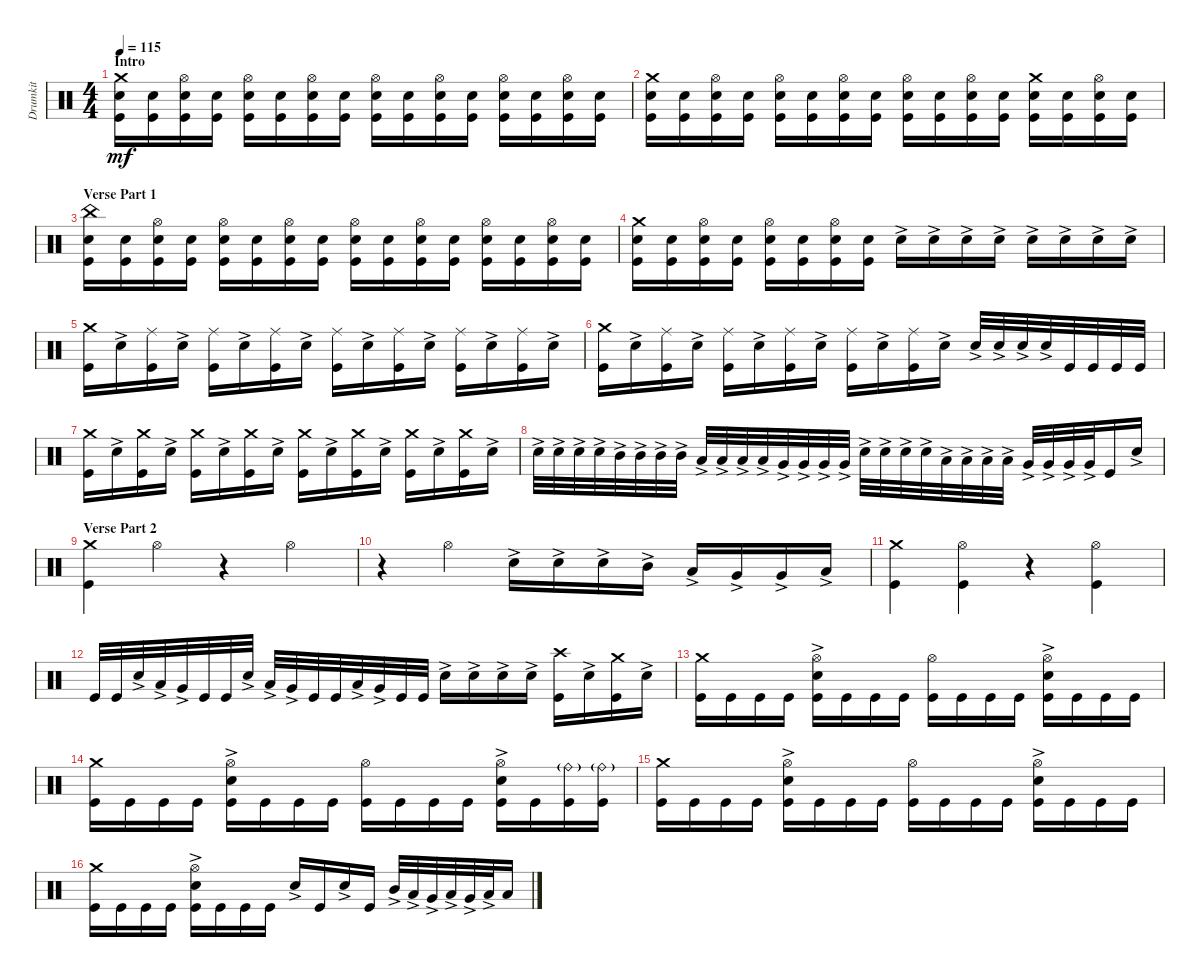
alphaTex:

\track ("Drumkit" "Drumkit") {instrument percussion}
\staff {score}
\articulation defaults
\ts (4 4)
\section ("" "Intro")
\tempo 115
\clef neutral
\ks c
("Kick (hit)" "Crash medium (hit)" "Snare (hit) 2").16{dy mf} ("Kick (hit)" "Snare (hit) 2").16 ("Kick (hit)" "Hi-Hat (open)" "Snare (hit) 2").16 ("Kick (hit)" "Snare (hit) 2").16 ("Kick (hit)" "Hi-Hat (open)" "Snare (hit) 2").16 ("Kick (hit)" "Snare (hit) 2").16 ("Kick (hit)" "Hi-Hat (open)" "Snare (hit) 2").16 ("Kick (hit)" "Snare (hit) 2").16 ("Kick (hit)" "Hi-Hat (open)" "Snare (hit) 2").16 ("Kick (hit)" "Snare (hit) 2").16 ("Kick (hit)" "Hi-Hat (open)" "Snare (hit) 2").16 ("Kick (hit)" "Snare (hit) 2").16 ("Kick (hit)" "Hi-Hat (open)" "Snare (hit) 2").16 ("Kick (hit)" "Snare (hit) 2").16 ("Kick (hit)" "Hi-Hat (open)" "Snare (hit) 2").16 ("Kick (hit)" "Snare (hit) 2").16 |
("Kick (hit)" "Snare (hit) 2" "Crash medium (hit)").16 ("Kick (hit)" "Snare (hit) 2").16 ("Kick (hit)" "Hi-Hat (open)" "Snare (hit) 2").16 ("Kick (hit)" "Snare (hit) 2").16 ("Kick (hit)" "Hi-Hat (open)" "Snare (hit) 2").16 ("Kick (hit)" "Snare (hit) 2").16 ("Kick (hit)" "Hi-Hat (open)" "Snare (hit) 2").16 ("Kick (hit)" "Snare (hit) 2").16 ("Kick (hit)" "Hi-Hat (open)" "Snare (hit) 2").16 ("Kick (hit)" "Snare (hit) 2").16 ("Kick (hit)" "Hi-Hat (open)" "Snare (hit) 2").16 ("Kick (hit)" "Snare (hit) 2").16 ("Kick (hit)" "Snare (hit) 2" "Crash medium (hit)").16 ("Kick (hit)" "Snare (hit) 2").16 ("Kick (hit)" "Hi-Hat (open)" "Snare (hit) 2").16 ("Kick (hit)" "Snare (hit) 2").16 |
\section ("" "Verse Part 1")
("Kick (hit)" "Snare (hit) 2" "China (hit)").16 ("Kick (hit)" "Snare (hit) 2").16 ("Kick (hit)" "Hi-Hat (open)" "Snare (hit) 2").16 ("Kick (hit)" "Snare (hit) 2").16 ("Kick (hit)" "Hi-Hat (open)" "Snare (hit) 2").16 ("Kick (hit)" "Snare (hit) 2").16 ("Kick (hit)" "Hi-Hat (open)" "Snare (hit) 2").16 ("Kick (hit)" "Snare (hit) 2").16 ("Kick (hit)" "Hi-Hat (open)" "Snare (hit) 2").16 ("Kick (hit)" "Snare (hit) 2").16 ("Kick (hit)" "Hi-Hat (open)" "Snare (hit) 2").16 ("Kick (hit)" "Snare (hit) 2").16 ("Kick (hit)" "Hi-Hat (open)" "Snare (hit) 2").16 ("Kick (hit)" "Snare (hit) 2").16 ("Kick (hit)" "Hi-Hat (open)" "Snare (hit) 2").16 ("Kick (hit)" "Snare (hit) 2").16 |
("Kick (hit)" "Crash medium (hit)" "Snare (hit) 2").16 ("Kick (hit)" "Snare (hit) 2").16 ("Kick (hit)" "Hi-Hat (open)" "Snare (hit) 2").16 ("Kick (hit)" "Snare (hit) 2").16 ("Kick (hit)" "Hi-Hat (open)" "Snare (hit) 2").16 ("Kick (hit)" "Snare (hit) 2").16 ("Kick (hit)" "Hi-Hat (open)" "Snare (hit) 2").16 ("Kick (hit)" "Snare (hit) 2").16 "Snare (hit) 2"{ac}.16 "Snare (hit) 2"{ac}.16 "Snare (hit) 2"{ac}.16 "Snare (hit) 2"{ac}.16 "Snare (hit) 2"{ac}.16 "Snare (hit) 2"{ac}.16 "Snare (hit) 2"{ac}.16 "Snare (hit) 2"{ac}.16 |
("Kick (hit)" "Crash medium (hit)").16 "Snare (hit) 2"{ac}.16 ("Kick (hit)" "Ride (middle)").16 "Snare (hit) 2"{ac}.16 ("Kick (hit)" "Ride (middle)").16 "Snare (hit) 2"{ac}.16 ("Kick (hit)" "Ride (middle)").16 "Snare (hit) 2"{ac}.16 ("Kick (hit)" "Ride (middle)").16 "Snare (hit) 2"{ac}.16 ("Kick (hit)" "Ride (middle)").16 "Snare (hit) 2"{ac}.16 ("Kick (hit)" "Ride (middle)").16 "Snare (hit) 2"{ac}.16 ("Kick (hit)" "Ride (middle)").16 "Snare (hit) 2"{ac}.16 |
("Kick (hit)" "Crash medium (hit)").16 "Snare (hit) 2"{ac}.16 ("Kick (hit)" "Ride (middle)").16 "Snare (hit) 2"{ac}.16 ("Kick (hit)" "Ride (middle)").16 "Snare (hit) 2"{ac}.16 ("Kick (hit)" "Ride (middle)").16 "Snare (hit) 2"{ac}.16 ("Kick (hit)" "Ride (middle)").16 "Snare (hit) 2"{ac}.16 ("Kick (hit)" "Ride (middle)").16 "Snare (hit) 2"{ac}.16 "Snare (hit) 2"{ac}.32 "Snare (hit) 2"{ac}.32 "Snare (hit) 2"{ac}.32 "Snare (hit) 2"{ac}.32 "Kick (hit)".32 "Kick (hit)".32 "Kick (hit)".32 "Kick (hit)".32 |
("Kick (hit)" "Crash medium (hit)").16 "Snare (hit) 2"{ac}.16 ("Kick (hit)" "Crash medium (hit)").16 "Snare (hit) 2"{ac}.16 ("Kick (hit)" "Crash medium (hit)").16 "Snare (hit) 2"{ac}.16 ("Kick (hit)" "Crash medium (hit)").16 "Snare (hit) 2"{ac}.16 ("Kick (hit)" "Crash medium (hit)").16 "Snare (hit) 2"{ac}.16 ("Kick (hit)" "Crash medium (hit)").16 "Snare (hit) 2"{ac}.16 ("Kick (hit)" "Crash medium (hit)").16 "Snare (hit) 2"{ac}.16 ("Kick (hit)" "Crash medium (hit)").16 "Snare (hit) 2"{ac}.16 |
"Snare (hit) 2"{ac}.32 "Snare (hit) 2"{ac}.32 "Snare (hit) 2"{ac}.32 "Snare (hit) 2"{ac}.32 "Mid Tom (hit)"{ac}.32 "Mid Tom (hit)"{ac}.32 "Mid Tom (hit)"{ac}.32 "Mid Tom (hit)"{ac}.32 "Low Tom (hit)"{ac}.32 "Low Tom (hit)"{ac}.32 "Low Tom (hit)"{ac}.32 "Low Tom (hit)"{ac}.32 "Very Low Tom (hit)"{ac}.32 "Very Low Tom (hit)"{ac}.32 "Very Low Tom (hit)"{ac}.32 "Very Low Tom (hit)"{ac}.32 "Snare (hit) 2"{ac}.32 "Snare (hit) 2"{ac}.32 "Snare (hit) 2"{ac}.32 "Snare (hit) 2"{ac}.32 "Low Tom (hit)"{ac}.32 "Low Tom (hit)"{ac}.32 "Low Tom (hit)"{ac}.32 "Low Tom (hit)"{ac}.32 "Very Low Tom (hit)"{ac}.32 "Very Low Tom (hit)"{ac}.32 "Very Low Tom (hit)"{ac}.32 "Very Low Tom (hit)"{ac}.32 "Kick (hit)".16 "Snare (hit) 2"{ac}.16 |
\section ("" "Verse Part 2")
("Kick (hit)" "Crash medium (hit)").4 "Hi-Hat (open)".4 r.4 "Hi-Hat (open)".4 |
r.4 "Hi-Hat (open)".4 "Snare (hit) 2"{ac}.16 "Snare (hit) 2"{ac}.16 "Snare (hit) 2"{ac}.16 "Mid Tom (hit)"{ac}.16 "Low Tom (hit)"{ac}.16 "Very Low Tom (hit)"{ac}.16 "Very Low Tom (hit)"{ac}.16 "Low Floor Tom (hit)"{ac}.16 |
("Kick (hit)" "Crash medium (hit)").4 ("Hi-Hat (open)" "Kick (hit)").4 r.4 ("Hi-Hat (open)" "Kick (hit)").4 |
"Kick (hit)".32 "Kick (hit)".32 "Snare (hit) 2"{ac}.32 "Low Tom (hit)"{ac}.32 "Very Low Tom (hit)"{ac}.32 "Kick (hit)".32 "Kick (hit)".32 "Snare (hit) 2"{ac}.32 "Low Tom (hit)"{ac}.32 "Very Low Tom (hit)"{ac}.32 "Kick (hit)".32 "Kick (hit)".32 "Low Tom (hit)"{ac}.32 "Very Low Tom (hit)"{ac}.32 "Kick (hit)".32 "Kick (hit)".32 "Snare (hit) 2"{ac}.16 "Snare (hit) 2"{ac}.16 "Snare (hit) 2"{ac}.16 "Snare (hit) 2"{ac}.16 ("Kick (hit)" "Crash high (hit)").16 "Snare (hit) 2"{ac}.16 ("Kick (hit)" "Crash medium (hit)").16 "Snare (hit) 2"{ac}.16 |
("Kick (hit)" "Crash medium (hit)").16 "Kick (hit)".16 "Kick (hit)".16 "Kick (hit)".16 ("Kick (hit)" "Hi-Hat (open)" "Snare (hit) 2"{ac}).16 "Kick (hit)".16 "Kick (hit)".16 "Kick (hit)".16 ("Kick (hit)" "Hi-Hat (open)").16 "Kick (hit)".16 "Kick (hit)".16 "Kick (hit)".16 ("Kick (hit)" "Hi-Hat (open)" "Snare (hit) 2"{ac}).16 "Kick (hit)".16 "Kick (hit)".16 "Kick (hit)".16 |
("Kick (hit)" "Crash medium (hit)").16 "Kick (hit)".16 "Kick (hit)".16 "Kick (hit)".16 ("Kick (hit)" "Hi-Hat (open)" "Snare (hit) 2"{ac}).16 "Kick (hit)".16 "Kick (hit)".16 "Kick (hit)".16 ("Kick (hit)" "Hi-Hat (open)").16 "Kick (hit)".16 "Kick (hit)".16 "Kick (hit)".16 ("Kick (hit)" "Hi-Hat (open)" "Snare (hit) 2"{ac}).16 "Kick (hit)".16 ("Kick (hit)" "Ride (bell)"{g}).16 ("Kick (hit)" "Ride (bell)"{g}).16 |
("Kick (hit)" "Crash medium (hit)").16 "Kick (hit)".16 "Kick (hit)".16 "Kick (hit)".16 ("Kick (hit)" "Hi-Hat (open)" "Snare (hit) 2"{ac}).16 "Kick (hit)".16 "Kick (hit)".16 "Kick (hit)".16 ("Kick (hit)" "Hi-Hat (open)").16 "Kick (hit)".16 "Kick (hit)".16 "Kick (hit)".16 ("Kick (hit)" "Hi-Hat (open)" "Snare (hit) 2"{ac}).16 "Kick (hit)".16 "Kick (hit)".16 "Kick (hit)".16 |
("Kick (hit)" "Crash medium (hit)").16 "Kick (hit)".16 "Kick (hit)".16 "Kick (hit)".16 ("Kick (hit)" "Hi-Hat (open)" "Snare (hit) 2"{ac}).16 "Kick (hit)".16 "Kick (hit)".16 "Kick (hit)".16 "Snare (hit) 2"{ac}.16 "Kick (hit)".16 "Snare (hit) 2"{ac}.16 "Kick (hit)".16 "Mid Tom (hit)"{ac}.32 "Low Tom (hit)"{ac}.32 "Very Low Tom (hit)"{ac}.32 "Low Tom (hit)"{ac}.32 "Very Low Tom (hit)"{ac}.32 "Low Floor Tom (hit)"{ac}.32 "Low Floor Tom (hit)".16
